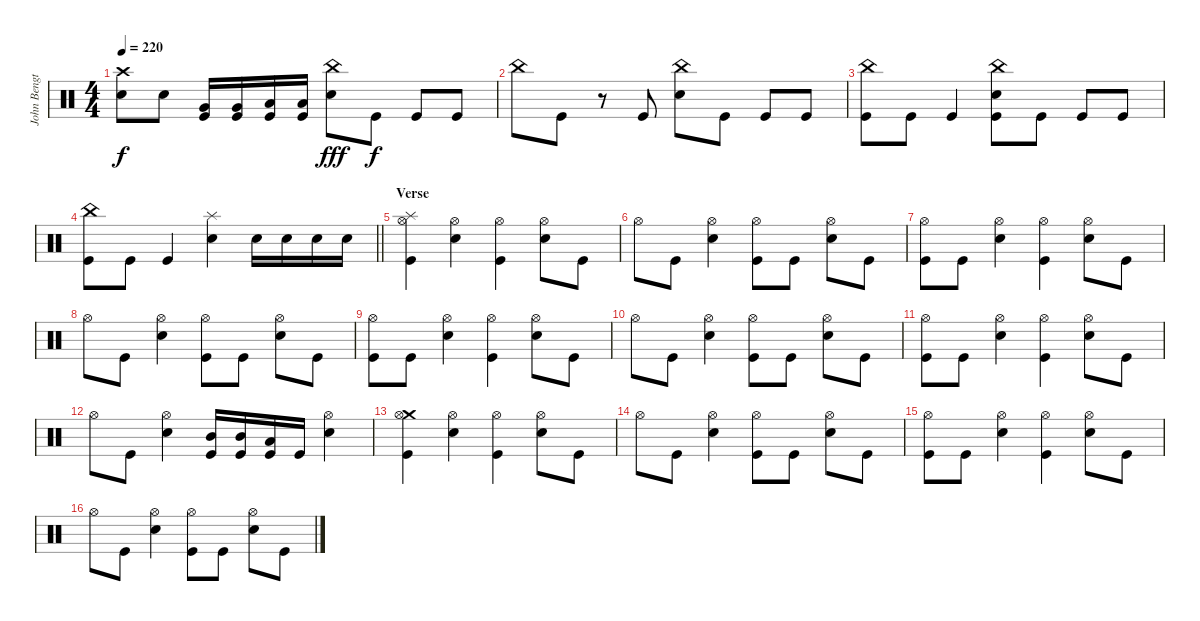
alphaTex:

\track ("John Bengtsson" "John Bengt") {instrument percussion}
\staff {score}
\articulation defaults
\ts (4 4)
\tempo 220
\clef neutral
\ks c
("Crash high (hit)" "Snare (hit) 2").8{dy f} "Snare (hit) 2".8 ("Very Low Tom (hit)" "Kick (hit)").16 ("Very Low Tom (hit)" "Kick (hit)").16 ("Low Floor Tom (hit)" "Kick (hit)").16 ("Low Floor Tom (hit)" "Kick (hit)").16 ("China (hit)" "Snare (hit) 2").8{dy fff} "Kick (hit)".8{dy f} "Kick (hit)".8 "Kick (hit)".8 |
"China (hit)".8 "Kick (hit)".8 r.8 "Kick (hit)".8 ("China (hit)" "Snare (hit) 2").8 "Kick (hit)".8 "Kick (hit)".8 "Kick (hit)".8 |
("China (hit)" "Kick (hit)").8 "Kick (hit)".8 "Kick (hit)".4 ("China (hit)" "Snare (hit) 2" "Kick (hit)").8 "Kick (hit)".8 "Kick (hit)".8 "Kick (hit)".8 |
\barLineRight lightlight
("China (hit)" "Kick (hit)").8 "Kick (hit)".8 "Kick (hit)".4 ("Splash (hit)" "Snare (hit) 2").4 "Snare (hit) 2".16 "Snare (hit) 2".16 "Snare (hit) 2".16 "Snare (hit) 2".16 |
\section ("" "Verse")
("Splash (hit)" "Hi-Hat (open)" "Kick (hit)").4 ("Hi-Hat (open)" "Snare (hit) 2").4 ("Hi-Hat (open)" "Kick (hit)").4 ("Hi-Hat (open)" "Snare (hit) 2").8 "Kick (hit)".8 |
"Hi-Hat (open)".8 "Kick (hit)".8 ("Hi-Hat (open)" "Snare (hit) 2").4 ("Hi-Hat (open)" "Kick (hit)").8 "Kick (hit)".8 ("Hi-Hat (open)" "Snare (hit) 2").8 "Kick (hit)".8 |
("Hi-Hat (open)" "Kick (hit)").8 "Kick (hit)".8 ("Hi-Hat (open)" "Snare (hit) 2").4 ("Hi-Hat (open)" "Kick (hit)").4 ("Hi-Hat (open)" "Snare (hit) 2").8 "Kick (hit)".8 |
"Hi-Hat (open)".8 "Kick (hit)".8 ("Hi-Hat (open)" "Snare (hit) 2").4 ("Hi-Hat (open)" "Kick (hit)").8 "Kick (hit)".8 ("Hi-Hat (open)" "Snare (hit) 2").8 "Kick (hit)".8 |
("Hi-Hat (open)" "Kick (hit)").8 "Kick (hit)".8 ("Hi-Hat (open)" "Snare (hit) 2").4 ("Hi-Hat (open)" "Kick (hit)").4 ("Hi-Hat (open)" "Snare (hit) 2").8 "Kick (hit)".8 |
"Hi-Hat (open)".8 "Kick (hit)".8 ("Hi-Hat (open)" "Snare (hit) 2").4 ("Hi-Hat (open)" "Kick (hit)").8 "Kick (hit)".8 ("Hi-Hat (open)" "Snare (hit) 2").8 "Kick (hit)".8 |
("Hi-Hat (open)" "Kick (hit)").8 "Kick (hit)".8 ("Hi-Hat (open)" "Snare (hit) 2").4 ("Hi-Hat (open)" "Kick (hit)").4 ("Hi-Hat (open)" "Snare (hit) 2").8 "Kick (hit)".8 |
"Hi-Hat (open)".8 "Kick (hit)".8 ("Hi-Hat (open)" "Snare (hit) 2").4 ("Mid Tom (hit)" "Kick (hit)").16 ("Mid Tom (hit)" "Kick (hit)").16 ("Low Tom (hit)" "Kick (hit)").16 "Kick (hit)".16 ("Hi-Hat (open)" "Snare (hit) 2").4 |
("Crash medium (hit)" "Hi-Hat (open)" "Kick (hit)").4 ("Hi-Hat (open)" "Snare (hit) 2").4 ("Hi-Hat (open)" "Kick (hit)").4 ("Hi-Hat (open)" "Snare (hit) 2").8 "Kick (hit)".8 |
"Hi-Hat (open)".8 "Kick (hit)".8 ("Hi-Hat (open)" "Snare (hit) 2").4 ("Hi-Hat (open)" "Kick (hit)").8 "Kick (hit)".8 ("Hi-Hat (open)" "Snare (hit) 2").8 "Kick (hit)".8 |
("Hi-Hat (open)" "Kick (hit)").8 "Kick (hit)".8 ("Hi-Hat (open)" "Snare (hit) 2").4 ("Hi-Hat (open)" "Kick (hit)").4 ("Hi-Hat (open)" "Snare (hit) 2").8 "Kick (hit)".8 |
"Hi-Hat (open)".8 "Kick (hit)".8 ("Hi-Hat (open)" "Snare (hit) 2").4 ("Hi-Hat (open)" "Kick (hit)").8 "Kick (hit)".8 ("Hi-Hat (open)" "Snare (hit) 2").8 "Kick (hit)".8
